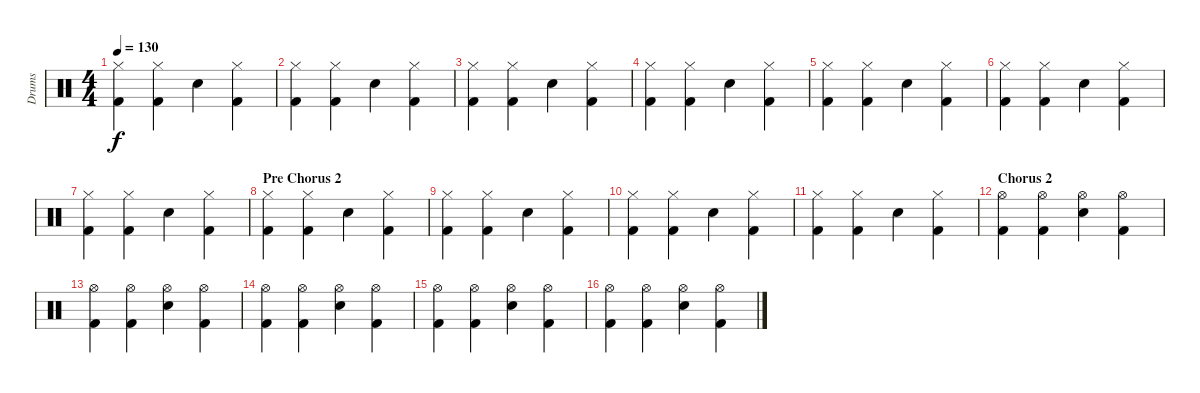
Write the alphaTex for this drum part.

\track ("Drums" "Drums") {instrument percussion}
\staff {score}
\articulation defaults
\ts (4 4)
\tempo 130
\clef neutral
\ks c
("Kick (hit) 2" "Hi-Hat (closed)").4{dy f} ("Kick (hit) 2" "Hi-Hat (closed)").4 "Electric Snare (hit)".4 ("Kick (hit) 2" "Hi-Hat (closed)").4 |
("Kick (hit) 2" "Hi-Hat (closed)").4 ("Kick (hit) 2" "Hi-Hat (closed)").4 "Electric Snare (hit)".4 ("Kick (hit) 2" "Hi-Hat (closed)").4 |
("Kick (hit) 2" "Hi-Hat (closed)").4 ("Kick (hit) 2" "Hi-Hat (closed)").4 "Electric Snare (hit)".4 ("Kick (hit) 2" "Hi-Hat (closed)").4 |
("Kick (hit) 2" "Hi-Hat (closed)").4 ("Kick (hit) 2" "Hi-Hat (closed)").4 "Electric Snare (hit)".4 ("Kick (hit) 2" "Hi-Hat (closed)").4 |
("Kick (hit) 2" "Hi-Hat (closed)").4 ("Kick (hit) 2" "Hi-Hat (closed)").4 "Electric Snare (hit)".4 ("Kick (hit) 2" "Hi-Hat (closed)").4 |
("Kick (hit) 2" "Hi-Hat (closed)").4 ("Kick (hit) 2" "Hi-Hat (closed)").4 "Electric Snare (hit)".4 ("Kick (hit) 2" "Hi-Hat (closed)").4 |
("Kick (hit) 2" "Hi-Hat (closed)").4 ("Kick (hit) 2" "Hi-Hat (closed)").4 "Electric Snare (hit)".4 ("Kick (hit) 2" "Hi-Hat (closed)").4 |
\section ("" "Pre Chorus 2")
("Kick (hit) 2" "Hi-Hat (closed)").4 ("Kick (hit) 2" "Hi-Hat (closed)").4 "Electric Snare (hit)".4 ("Kick (hit) 2" "Hi-Hat (closed)").4 |
("Kick (hit) 2" "Hi-Hat (closed)").4 ("Kick (hit) 2" "Hi-Hat (closed)").4 "Electric Snare (hit)".4 ("Kick (hit) 2" "Hi-Hat (closed)").4 |
("Kick (hit) 2" "Hi-Hat (closed)").4 ("Kick (hit) 2" "Hi-Hat (closed)").4 "Electric Snare (hit)".4 ("Kick (hit) 2" "Hi-Hat (closed)").4 |
("Kick (hit) 2" "Hi-Hat (closed)").4 ("Kick (hit) 2" "Hi-Hat (closed)").4 "Electric Snare (hit)".4 ("Kick (hit) 2" "Hi-Hat (closed)").4 |
\section ("" "Chorus 2")
("Kick (hit) 2" "Hi-Hat (open)").4 ("Kick (hit) 2" "Hi-Hat (open)").4 ("Electric Snare (hit)" "Hi-Hat (open)").4 ("Kick (hit) 2" "Hi-Hat (open)").4 |
("Kick (hit) 2" "Hi-Hat (open)").4 ("Kick (hit) 2" "Hi-Hat (open)").4 ("Electric Snare (hit)" "Hi-Hat (open)").4 ("Kick (hit) 2" "Hi-Hat (open)").4 |
("Kick (hit) 2" "Hi-Hat (open)").4 ("Kick (hit) 2" "Hi-Hat (open)").4 ("Electric Snare (hit)" "Hi-Hat (open)").4 ("Kick (hit) 2" "Hi-Hat (open)").4 |
("Kick (hit) 2" "Hi-Hat (open)").4 ("Kick (hit) 2" "Hi-Hat (open)").4 ("Electric Snare (hit)" "Hi-Hat (open)").4 ("Kick (hit) 2" "Hi-Hat (open)").4 |
("Kick (hit) 2" "Hi-Hat (open)").4 ("Kick (hit) 2" "Hi-Hat (open)").4 ("Electric Snare (hit)" "Hi-Hat (open)").4 ("Kick (hit) 2" "Hi-Hat (open)").4
